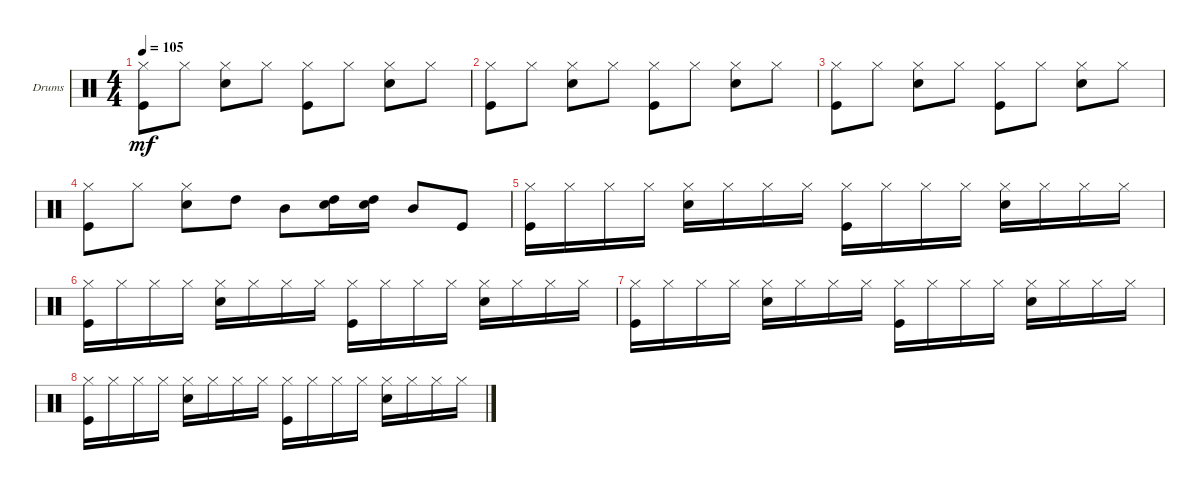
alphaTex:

\defaultSystemsLayout 4
\bracketExtendMode groupsimilarinstruments
\firstSystemTrackNameOrientation horizontal
\otherSystemsTrackNameOrientation horizontal
\track ("Drumkit" "Drums") {instrument percussion}
\staff {score}
\articulation defaults
\ts (4 4)
\tempo 105
\clef neutral
\ks c
("Hi-Hat (closed)" "Kick (hit)").8{dy mf} "Hi-Hat (closed)".8 ("Hi-Hat (closed)" "Snare (hit) 2").8 "Hi-Hat (closed)".8 ("Hi-Hat (closed)" "Kick (hit)").8 "Hi-Hat (closed)".8 ("Hi-Hat (closed)" "Snare (hit) 2").8 "Hi-Hat (closed)".8 |
("Hi-Hat (closed)" "Kick (hit)").8 "Hi-Hat (closed)".8 ("Hi-Hat (closed)" "Snare (hit) 2").8 "Hi-Hat (closed)".8 ("Hi-Hat (closed)" "Kick (hit)").8 "Hi-Hat (closed)".8 ("Hi-Hat (closed)" "Snare (hit) 2").8 "Hi-Hat (closed)".8 |
("Hi-Hat (closed)" "Kick (hit)").8 "Hi-Hat (closed)".8 ("Hi-Hat (closed)" "Snare (hit) 2").8 "Hi-Hat (closed)".8 ("Hi-Hat (closed)" "Kick (hit)").8 "Hi-Hat (closed)".8 ("Hi-Hat (closed)" "Snare (hit) 2").8 "Hi-Hat (closed)".8 |
("Hi-Hat (closed)" "Kick (hit)").8 "Hi-Hat (closed)".8 ("Hi-Hat (closed)" "Snare (hit) 2").8 "High Tom (hit)".8 "Mid Tom (hit)".8 ("High Tom (hit)" "Snare (hit) 2").16 ("Snare (hit) 2" "High Tom (hit)").16 "Mid Tom (hit)".8 "Kick (hit)".8 |
("Hi-Hat (closed)" "Kick (hit)").16 "Hi-Hat (closed)".16 "Hi-Hat (closed)".16 "Hi-Hat (closed)".16 ("Hi-Hat (closed)" "Snare (hit) 2").16 "Hi-Hat (closed)".16 "Hi-Hat (closed)".16 "Hi-Hat (closed)".16 ("Hi-Hat (closed)" "Kick (hit)").16 "Hi-Hat (closed)".16 "Hi-Hat (closed)".16 "Hi-Hat (closed)".16 ("Hi-Hat (closed)" "Snare (hit) 2").16 "Hi-Hat (closed)".16 "Hi-Hat (closed)".16 "Hi-Hat (closed)".16 |
("Hi-Hat (closed)" "Kick (hit)").16 "Hi-Hat (closed)".16 "Hi-Hat (closed)".16 "Hi-Hat (closed)".16 ("Hi-Hat (closed)" "Snare (hit) 2").16 "Hi-Hat (closed)".16 "Hi-Hat (closed)".16 "Hi-Hat (closed)".16 ("Hi-Hat (closed)" "Kick (hit)").16 "Hi-Hat (closed)".16 "Hi-Hat (closed)".16 "Hi-Hat (closed)".16 ("Hi-Hat (closed)" "Snare (hit) 2").16 "Hi-Hat (closed)".16 "Hi-Hat (closed)".16 "Hi-Hat (closed)".16 |
("Hi-Hat (closed)" "Kick (hit)").16 "Hi-Hat (closed)".16 "Hi-Hat (closed)".16 "Hi-Hat (closed)".16 ("Hi-Hat (closed)" "Snare (hit) 2").16 "Hi-Hat (closed)".16 "Hi-Hat (closed)".16 "Hi-Hat (closed)".16 ("Hi-Hat (closed)" "Kick (hit)").16 "Hi-Hat (closed)".16 "Hi-Hat (closed)".16 "Hi-Hat (closed)".16 ("Hi-Hat (closed)" "Snare (hit) 2").16 "Hi-Hat (closed)".16 "Hi-Hat (closed)".16 "Hi-Hat (closed)".16 |
("Hi-Hat (closed)" "Kick (hit)").16 "Hi-Hat (closed)".16 "Hi-Hat (closed)".16 "Hi-Hat (closed)".16 ("Hi-Hat (closed)" "Snare (hit) 2").16 "Hi-Hat (closed)".16 "Hi-Hat (closed)".16 "Hi-Hat (closed)".16 ("Hi-Hat (closed)" "Kick (hit)").16 "Hi-Hat (closed)".16 "Hi-Hat (closed)".16 "Hi-Hat (closed)".16 ("Hi-Hat (closed)" "Snare (hit) 2").16 "Hi-Hat (closed)".16 "Hi-Hat (closed)".16 "Hi-Hat (closed)".16
